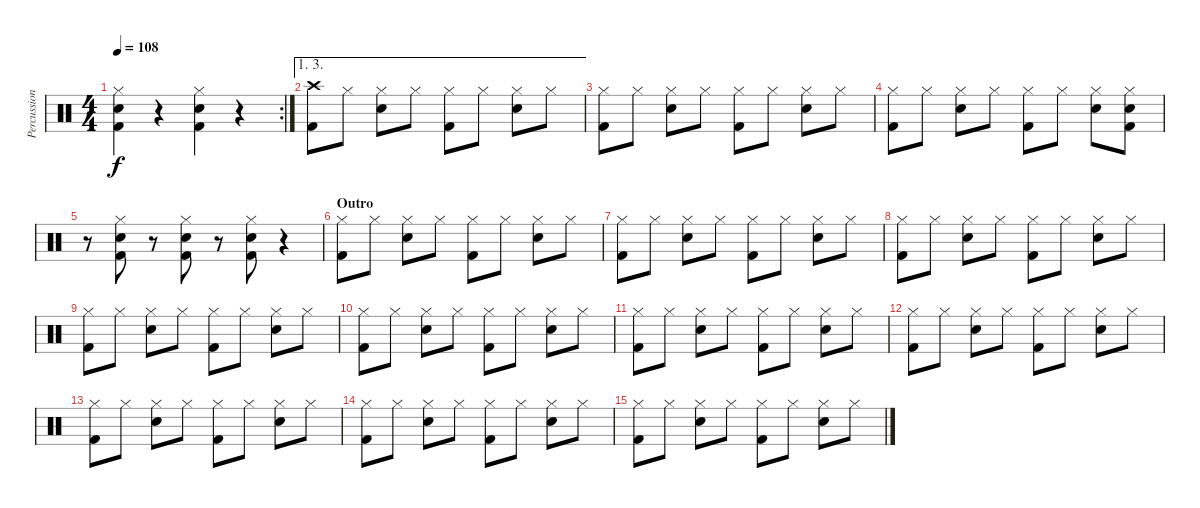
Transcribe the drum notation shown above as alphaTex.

\track ("Percussions" "Percussion") {instrument percussion}
\staff {score}
\articulation defaults
\rc 2
\ts (4 4)
\tempo 108
\clef neutral
\ks c
("Hi-Hat (closed)" "Snare (hit) 2" "Kick (hit) 2").4{dy f} r.4 ("Hi-Hat (closed)" "Snare (hit) 2" "Kick (hit) 2").4 r.4 |
\ae (1 3)
("Crash high (hit)" "Kick (hit) 2").8 "Hi-Hat (closed)".8 ("Hi-Hat (closed)" "Snare (hit) 2").8 "Hi-Hat (closed)".8 ("Hi-Hat (closed)" "Kick (hit) 2").8 "Hi-Hat (closed)".8 ("Hi-Hat (closed)" "Snare (hit) 2").8 "Hi-Hat (closed)".8 |
("Hi-Hat (closed)" "Kick (hit) 2").8 "Hi-Hat (closed)".8 ("Hi-Hat (closed)" "Snare (hit) 2").8 "Hi-Hat (closed)".8 ("Hi-Hat (closed)" "Kick (hit) 2").8 "Hi-Hat (closed)".8 ("Hi-Hat (closed)" "Snare (hit) 2").8 "Hi-Hat (closed)".8 |
("Hi-Hat (closed)" "Kick (hit) 2").8 "Hi-Hat (closed)".8 ("Hi-Hat (closed)" "Snare (hit) 2").8 "Hi-Hat (closed)".8 ("Hi-Hat (closed)" "Kick (hit) 2").8 "Hi-Hat (closed)".8 ("Hi-Hat (closed)" "Snare (hit) 2").8 ("Hi-Hat (closed)" "Snare (hit) 2" "Kick (hit) 2").8 |
r.8 ("Hi-Hat (closed)" "Snare (hit) 2" "Kick (hit) 2").8 r.8 ("Hi-Hat (closed)" "Snare (hit) 2" "Kick (hit) 2").8 r.8 ("Hi-Hat (closed)" "Snare (hit) 2" "Kick (hit) 2").8 r.4 |
\section ("" "Outro")
("Hi-Hat (closed)" "Kick (hit) 2").8 "Hi-Hat (closed)".8 ("Hi-Hat (closed)" "Snare (hit) 2").8 "Hi-Hat (closed)".8 ("Hi-Hat (closed)" "Kick (hit) 2").8 "Hi-Hat (closed)".8 ("Hi-Hat (closed)" "Snare (hit) 2").8 "Hi-Hat (closed)".8 |
("Hi-Hat (closed)" "Kick (hit) 2").8 "Hi-Hat (closed)".8 ("Hi-Hat (closed)" "Snare (hit) 2").8 "Hi-Hat (closed)".8 ("Hi-Hat (closed)" "Kick (hit) 2").8 "Hi-Hat (closed)".8 ("Hi-Hat (closed)" "Snare (hit) 2").8 "Hi-Hat (closed)".8 |
("Hi-Hat (closed)" "Kick (hit) 2").8 "Hi-Hat (closed)".8 ("Hi-Hat (closed)" "Snare (hit) 2").8 "Hi-Hat (closed)".8 ("Hi-Hat (closed)" "Kick (hit) 2").8 "Hi-Hat (closed)".8 ("Hi-Hat (closed)" "Snare (hit) 2").8 "Hi-Hat (closed)".8 |
("Hi-Hat (closed)" "Kick (hit) 2").8 "Hi-Hat (closed)".8 ("Hi-Hat (closed)" "Snare (hit) 2").8 "Hi-Hat (closed)".8 ("Hi-Hat (closed)" "Kick (hit) 2").8 "Hi-Hat (closed)".8 ("Hi-Hat (closed)" "Snare (hit) 2").8 "Hi-Hat (closed)".8 |
("Hi-Hat (closed)" "Kick (hit) 2").8 "Hi-Hat (closed)".8 ("Hi-Hat (closed)" "Snare (hit) 2").8 "Hi-Hat (closed)".8 ("Hi-Hat (closed)" "Kick (hit) 2").8 "Hi-Hat (closed)".8 ("Hi-Hat (closed)" "Snare (hit) 2").8 "Hi-Hat (closed)".8 |
("Hi-Hat (closed)" "Kick (hit) 2").8 "Hi-Hat (closed)".8 ("Hi-Hat (closed)" "Snare (hit) 2").8 "Hi-Hat (closed)".8 ("Hi-Hat (closed)" "Kick (hit) 2").8 "Hi-Hat (closed)".8 ("Hi-Hat (closed)" "Snare (hit) 2").8 "Hi-Hat (closed)".8 |
("Hi-Hat (closed)" "Kick (hit) 2").8 "Hi-Hat (closed)".8 ("Hi-Hat (closed)" "Snare (hit) 2").8 "Hi-Hat (closed)".8 ("Hi-Hat (closed)" "Kick (hit) 2").8 "Hi-Hat (closed)".8 ("Hi-Hat (closed)" "Snare (hit) 2").8 "Hi-Hat (closed)".8 |
("Hi-Hat (closed)" "Kick (hit) 2").8 "Hi-Hat (closed)".8 ("Hi-Hat (closed)" "Snare (hit) 2").8 "Hi-Hat (closed)".8 ("Hi-Hat (closed)" "Kick (hit) 2").8 "Hi-Hat (closed)".8 ("Hi-Hat (closed)" "Snare (hit) 2").8 "Hi-Hat (closed)".8 |
("Hi-Hat (closed)" "Kick (hit) 2").8 "Hi-Hat (closed)".8 ("Hi-Hat (closed)" "Snare (hit) 2").8 "Hi-Hat (closed)".8 ("Hi-Hat (closed)" "Kick (hit) 2").8 "Hi-Hat (closed)".8 ("Hi-Hat (closed)" "Snare (hit) 2").8 "Hi-Hat (closed)".8 |
("Hi-Hat (closed)" "Kick (hit) 2").8 "Hi-Hat (closed)".8 ("Hi-Hat (closed)" "Snare (hit) 2").8 "Hi-Hat (closed)".8 ("Hi-Hat (closed)" "Kick (hit) 2").8 "Hi-Hat (closed)".8 ("Hi-Hat (closed)" "Snare (hit) 2").8 "Hi-Hat (closed)".8
